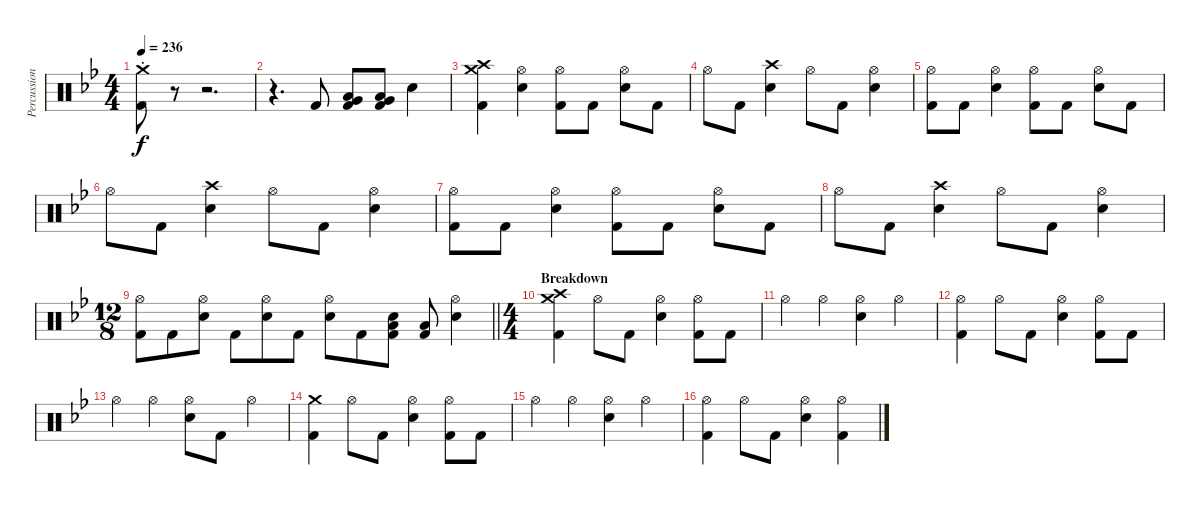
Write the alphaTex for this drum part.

\track ("Percussion" "Percussion") {instrument percussion}
\staff {score}
\articulation defaults
\ts (4 4)
\tempo 236
\clef neutral
\ks bb
("Crash medium (hit)"{st} "Kick (hit) 2").8{dy f} r.8{volume 0} r.2{d} |
r.4{d} "Kick (hit) 2".8{volume 14} ("Very Low Tom (hit)" "Low Floor Tom (hit)" "Kick (hit) 2").8 ("Very Low Tom (hit)" "Low Floor Tom (hit)" "Kick (hit) 2").8 "Electric Snare (hit)".4 |
("Crash medium (hit)" "Crash high (hit)" "Kick (hit) 2").4 ("Hi-Hat (open)" "Electric Snare (hit)").4 ("Hi-Hat (open)" "Kick (hit) 2").8 "Kick (hit) 2".8 ("Hi-Hat (open)" "Electric Snare (hit)").8 "Kick (hit) 2".8 |
"Hi-Hat (open)".8 "Kick (hit) 2".8 ("Crash high (hit)" "Electric Snare (hit)").4 "Hi-Hat (open)".8 "Kick (hit) 2".8 ("Hi-Hat (open)" "Electric Snare (hit)").4 |
("Hi-Hat (open)" "Kick (hit) 2").8 "Kick (hit) 2".8 ("Hi-Hat (open)" "Electric Snare (hit)").4 ("Hi-Hat (open)" "Kick (hit) 2").8 "Kick (hit) 2".8 ("Hi-Hat (open)" "Electric Snare (hit)").8 "Kick (hit) 2".8 |
"Hi-Hat (open)".8 "Kick (hit) 2".8 ("Crash high (hit)" "Electric Snare (hit)").4 "Hi-Hat (open)".8 "Kick (hit) 2".8 ("Hi-Hat (open)" "Electric Snare (hit)").4 |
("Hi-Hat (open)" "Kick (hit) 2").8 "Kick (hit) 2".8 ("Hi-Hat (open)" "Electric Snare (hit)").4 ("Hi-Hat (open)" "Kick (hit) 2").8 "Kick (hit) 2".8 ("Hi-Hat (open)" "Electric Snare (hit)").8 "Kick (hit) 2".8 |
"Hi-Hat (open)".8 "Kick (hit) 2".8 ("Crash high (hit)" "Electric Snare (hit)").4 "Hi-Hat (open)".8 "Kick (hit) 2".8 ("Hi-Hat (open)" "Electric Snare (hit)").4 |
\ts (12 8)
\barLineRight lightlight
("Hi-Hat (open)" "Kick (hit) 2").8 "Kick (hit) 2".8 ("Hi-Hat (open)" "Electric Snare (hit)").8 "Kick (hit) 2".8 ("Hi-Hat (open)" "Electric Snare (hit)").8 "Kick (hit) 2".8 ("Hi-Hat (open)" "Electric Snare (hit)").8 "Kick (hit) 2".8 ("Low Tom (hit)" "Electric Snare (hit)" "Kick (hit) 2").8 ("Low Tom (hit)" "Kick (hit) 2").8 ("Hi-Hat (open)" "Electric Snare (hit)").4 |
\ts (4 4)
\section ("" "Breakdown")
("Crash medium (hit)" "Crash high (hit)" "Kick (hit) 2").4 "Hi-Hat (open)".8 "Kick (hit) 2".8 ("Hi-Hat (open)" "Electric Snare (hit)").4 ("Hi-Hat (open)" "Kick (hit) 2").8 "Kick (hit) 2".8 |
"Hi-Hat (open)".4 "Hi-Hat (open)".4 ("Hi-Hat (open)" "Electric Snare (hit)").4 "Hi-Hat (open)".4 |
("Hi-Hat (open)" "Kick (hit) 2").4 "Hi-Hat (open)".8 "Kick (hit) 2".8 ("Hi-Hat (open)" "Electric Snare (hit)").4 ("Hi-Hat (open)" "Kick (hit) 2").8 "Kick (hit) 2".8 |
"Hi-Hat (open)".4 "Hi-Hat (open)".4 ("Hi-Hat (open)" "Electric Snare (hit)").8 "Kick (hit) 2".8 "Hi-Hat (open)".4 |
("Crash medium (hit)" "Kick (hit) 2").4 "Hi-Hat (open)".8 "Kick (hit) 2".8 ("Hi-Hat (open)" "Electric Snare (hit)").4 ("Hi-Hat (open)" "Kick (hit) 2").8 "Kick (hit) 2".8 |
"Hi-Hat (open)".4 "Hi-Hat (open)".4 ("Hi-Hat (open)" "Electric Snare (hit)").4 "Hi-Hat (open)".4 |
("Hi-Hat (open)" "Kick (hit) 2").4 "Hi-Hat (open)".8 "Kick (hit) 2".8 ("Hi-Hat (open)" "Electric Snare (hit)").4 ("Hi-Hat (open)" "Kick (hit) 2").4
